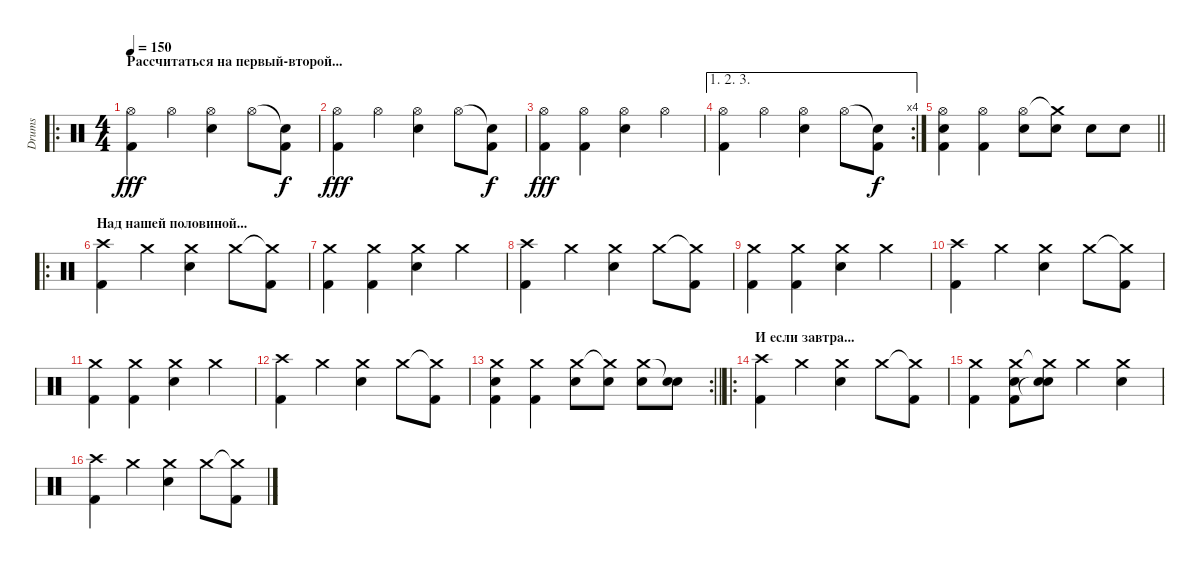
\track ("Drums" "Drums") {instrument percussion}
\staff {score}
\articulation defaults
\ro
\ts (4 4)
\section ("" "Рассчитаться на первый-второй...")
\tempo 150
\clef neutral
\ks c
("Hi-Hat (open)" "Kick (hit) 2").4{dy fff} "Hi-Hat (open)".4 ("Hi-Hat (open)" "Electric Snare (hit)").4 "Hi-Hat (open)".8 ("Snare (hit)"{t} "Kick (hit) 2").8{dy f} |
("Hi-Hat (open)" "Kick (hit) 2").4{dy fff} "Hi-Hat (open)".4 ("Hi-Hat (open)" "Electric Snare (hit)").4 "Hi-Hat (open)".8 ("Snare (hit)"{t} "Kick (hit) 2").8{dy f} |
("Hi-Hat (open)" "Kick (hit) 2").4{dy fff} ("Hi-Hat (open)" "Kick (hit) 2").4 ("Hi-Hat (open)" "Electric Snare (hit)").4 "Hi-Hat (open)".4 |
\ae (1 2 3)
\rc 4
("Hi-Hat (open)" "Kick (hit) 2").4 "Hi-Hat (open)".4 ("Hi-Hat (open)" "Electric Snare (hit)").4 "Hi-Hat (open)".8 ("Snare (hit)"{t} "Kick (hit) 2").8{dy f} |
\barLineRight lightlight
("Hi-Hat (open)" "Kick (hit) 2" "Electric Snare (hit)").4 ("Hi-Hat (open)" "Kick (hit) 2").4 ("Hi-Hat (open)" "Electric Snare (hit)").8 ("Crash medium (hit)"{t} "Electric Snare (hit)").8 "Electric Snare (hit)".8 "Electric Snare (hit)".8 |
\ro
\section ("" "Над нашей половиной...")
("Crash high (hit)" "Kick (hit) 2").4 "Crash medium (hit)".4 ("Crash medium (hit)" "Electric Snare (hit)").4 "Crash medium (hit)".8 ("Crash medium (hit)"{t} "Kick (hit) 2").8 |
("Crash medium (hit)" "Kick (hit) 2").4 ("Crash medium (hit)" "Kick (hit) 2").4 ("Crash medium (hit)" "Electric Snare (hit)").4 "Crash medium (hit)".4 |
("Crash high (hit)" "Kick (hit) 2").4 "Crash medium (hit)".4 ("Crash medium (hit)" "Electric Snare (hit)").4 "Crash medium (hit)".8 ("Crash medium (hit)"{t} "Kick (hit) 2").8 |
("Crash medium (hit)" "Kick (hit) 2").4 ("Crash medium (hit)" "Kick (hit) 2").4 ("Crash medium (hit)" "Electric Snare (hit)").4 "Crash medium (hit)".4 |
("Crash high (hit)" "Kick (hit) 2").4 "Crash medium (hit)".4 ("Crash medium (hit)" "Electric Snare (hit)").4 "Crash medium (hit)".8 ("Crash medium (hit)"{t} "Kick (hit) 2").8 |
("Crash medium (hit)" "Kick (hit) 2").4 ("Crash medium (hit)" "Kick (hit) 2").4 ("Crash medium (hit)" "Electric Snare (hit)").4 "Crash medium (hit)".4 |
("Crash high (hit)" "Kick (hit) 2").4 "Crash medium (hit)".4 ("Crash medium (hit)" "Electric Snare (hit)").4 "Crash medium (hit)".8 ("Crash medium (hit)"{t} "Kick (hit) 2").8 |
\rc 2
\barLineRight lightlight
("Crash medium (hit)" "Kick (hit) 2" "Electric Snare (hit)").4 ("Crash medium (hit)" "Kick (hit) 2").4 ("Crash medium (hit)" "Electric Snare (hit)").8 ("Crash medium (hit)"{t} "Electric Snare (hit)").8 ("Crash medium (hit)" "Electric Snare (hit)").8 ("Snare (hit)"{t} "Electric Snare (hit)").8 |
\ro
\section ("" "И если завтра...")
("Crash high (hit)" "Kick (hit) 2").4 "Crash medium (hit)".4 ("Crash medium (hit)" "Electric Snare (hit)").4 "Crash medium (hit)".8 ("Crash medium (hit)"{t} "Kick (hit) 2").8 |
("Crash medium (hit)" "Kick (hit) 2").4 ("Crash medium (hit)" "Kick (hit) 2" "Electric Snare (hit)").8 ("Crash medium (hit)"{t} "Snare (hit)"{t} "Electric Snare (hit)").8 "Crash medium (hit)".4 ("Crash medium (hit)" "Electric Snare (hit)").4 |
("Crash high (hit)" "Kick (hit) 2").4 "Crash medium (hit)".4 ("Crash medium (hit)" "Electric Snare (hit)").4 "Crash medium (hit)".8 ("Crash medium (hit)"{t} "Kick (hit) 2").8
